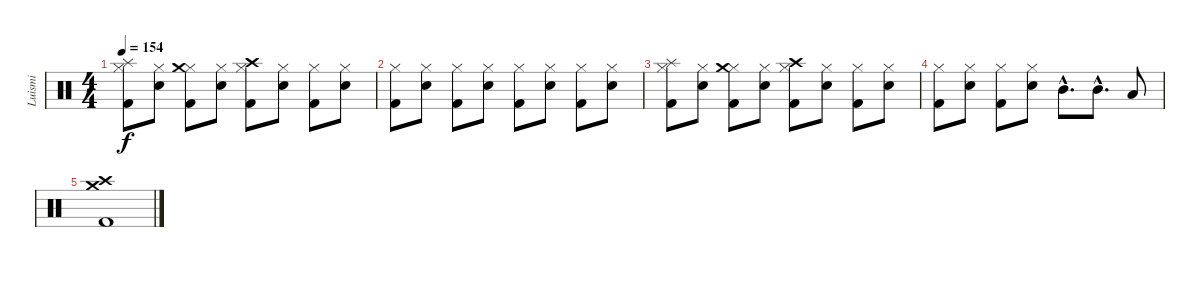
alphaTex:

\track ("Luismi" "Luismi") {instrument percussion}
\staff {score}
\articulation defaults
\ts (4 4)
\tempo 154
\clef neutral
\ks c
("Hi-Hat (closed)" "Kick (hit) 2" "Splash (hit)").8{dy f} ("Hi-Hat (closed)" "Snare (hit) 2").8 ("Hi-Hat (closed)" "Kick (hit) 2" "Crash medium (hit)").8 ("Hi-Hat (closed)" "Snare (hit) 2").8 ("Hi-Hat (closed)" "Kick (hit) 2" "Crash high (hit)").8 ("Hi-Hat (closed)" "Snare (hit) 2").8 ("Hi-Hat (closed)" "Kick (hit) 2").8 ("Hi-Hat (closed)" "Snare (hit) 2").8 |
("Hi-Hat (closed)" "Kick (hit) 2").8 ("Hi-Hat (closed)" "Snare (hit) 2").8 ("Hi-Hat (closed)" "Kick (hit) 2").8 ("Hi-Hat (closed)" "Snare (hit) 2").8 ("Hi-Hat (closed)" "Kick (hit) 2").8 ("Hi-Hat (closed)" "Snare (hit) 2").8 ("Hi-Hat (closed)" "Kick (hit) 2").8 ("Hi-Hat (closed)" "Snare (hit) 2").8 |
("Hi-Hat (closed)" "Kick (hit) 2" "Splash (hit)").8 ("Hi-Hat (closed)" "Snare (hit) 2").8 ("Hi-Hat (closed)" "Kick (hit) 2" "Crash medium (hit)").8 ("Hi-Hat (closed)" "Snare (hit) 2").8 ("Hi-Hat (closed)" "Kick (hit) 2" "Crash high (hit)").8 ("Hi-Hat (closed)" "Snare (hit) 2").8 ("Hi-Hat (closed)" "Kick (hit) 2").8 ("Hi-Hat (closed)" "Snare (hit) 2").8 |
("Kick (hit) 2" "Hi-Hat (closed)").8 ("Snare (hit) 2" "Hi-Hat (closed)").8 ("Kick (hit) 2" "Hi-Hat (closed)").8 ("Snare (hit) 2" "Hi-Hat (closed)").8 "Mid Tom (hit)"{hac}.8{d} "Mid Tom (hit)"{hac}.8{d} "Low Tom (hit)".8 |
("Kick (hit) 2" "Crash high (hit)" "Crash medium (hit)").1
